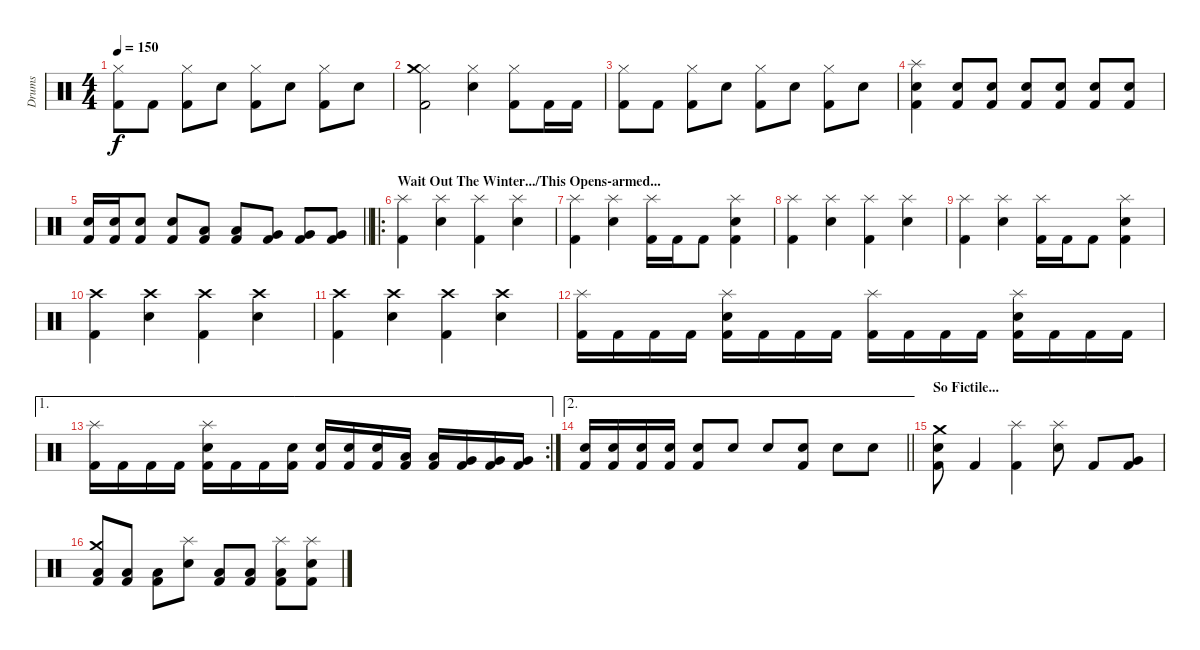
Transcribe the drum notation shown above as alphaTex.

\track ("Drums" "Drums") {instrument percussion}
\staff {score}
\articulation defaults
\ts (4 4)
\tempo 150
\clef neutral
\ks c
("Kick (hit) 2" "Hi-Hat (closed)").8{dy f} "Kick (hit) 2".8 ("Kick (hit) 2" "Hi-Hat (closed)").8 "Electric Snare (hit)".8 ("Kick (hit) 2" "Hi-Hat (closed)").8 "Electric Snare (hit)".8 ("Kick (hit) 2" "Hi-Hat (closed)").8 "Electric Snare (hit)".8 |
("Kick (hit) 2" "Hi-Hat (closed)" "Crash medium (hit)").2 ("Electric Snare (hit)" "Hi-Hat (closed)").4 ("Kick (hit) 2" "Hi-Hat (closed)").8 "Kick (hit) 2".16 "Kick (hit) 2".16 |
("Kick (hit) 2" "Hi-Hat (closed)").8 "Kick (hit) 2".8 ("Kick (hit) 2" "Hi-Hat (closed)").8 "Electric Snare (hit)".8 ("Kick (hit) 2" "Hi-Hat (closed)").8 "Electric Snare (hit)".8 ("Kick (hit) 2" "Hi-Hat (closed)").8 "Electric Snare (hit)".8 |
("Kick (hit) 2" "Electric Snare (hit)" "Splash (hit)").4 ("Kick (hit) 2" "Electric Snare (hit)").8 ("Kick (hit) 2" "Electric Snare (hit)").8 ("Kick (hit) 2" "Electric Snare (hit)").8 ("Kick (hit) 2" "Electric Snare (hit)").8 ("Kick (hit) 2" "Electric Snare (hit)").8 ("Kick (hit) 2" "Electric Snare (hit)").8 |
\barLineRight lightlight
("Kick (hit) 2" "Electric Snare (hit)").16 ("Kick (hit) 2" "Electric Snare (hit)").16 ("Kick (hit) 2" "Electric Snare (hit)").8 ("Kick (hit) 2" "Electric Snare (hit)").8 ("Kick (hit) 2" "Low Floor Tom (hit)").8 ("Kick (hit) 2" "Low Floor Tom (hit)").8 ("Kick (hit) 2" "Very Low Tom (hit)").8 ("Kick (hit) 2" "Very Low Tom (hit)").8 ("Kick (hit) 2" "Very Low Tom (hit)").8 |
\ro
\section ("" "Wait Out The Winter.../This Opens-armed...")
("Kick (hit) 2" "Splash (hit)").4 ("Electric Snare (hit)" "Splash (hit)").4 ("Kick (hit) 2" "Splash (hit)").4 ("Electric Snare (hit)" "Splash (hit)").4 |
("Kick (hit) 2" "Splash (hit)").4 ("Electric Snare (hit)" "Splash (hit)").4 ("Kick (hit) 2" "Splash (hit)").16 "Kick (hit) 2".16 "Kick (hit) 2".8 ("Kick (hit) 2" "Electric Snare (hit)" "Splash (hit)").4 |
("Kick (hit) 2" "Splash (hit)").4 ("Electric Snare (hit)" "Splash (hit)").4 ("Kick (hit) 2" "Splash (hit)").4 ("Electric Snare (hit)" "Splash (hit)").4 |
("Kick (hit) 2" "Splash (hit)").4 ("Electric Snare (hit)" "Splash (hit)").4 ("Kick (hit) 2" "Splash (hit)").16 "Kick (hit) 2".16 "Kick (hit) 2".8 ("Kick (hit) 2" "Electric Snare (hit)" "Splash (hit)").4 |
("Kick (hit) 2" "Crash high (hit)").4 ("Electric Snare (hit)" "Crash high (hit)").4 ("Kick (hit) 2" "Crash high (hit)").4 ("Electric Snare (hit)" "Crash high (hit)").4 |
("Kick (hit) 2" "Crash high (hit)").4 ("Electric Snare (hit)" "Crash high (hit)").4 ("Kick (hit) 2" "Crash high (hit)").4 ("Electric Snare (hit)" "Crash high (hit)").4 |
("Kick (hit) 2" "Splash (hit)").16 "Kick (hit) 2".16 "Kick (hit) 2".16 "Kick (hit) 2".16 ("Kick (hit) 2" "Electric Snare (hit)" "Splash (hit)").16 "Kick (hit) 2".16 "Kick (hit) 2".16 "Kick (hit) 2".16 ("Kick (hit) 2" "Splash (hit)").16 "Kick (hit) 2".16 "Kick (hit) 2".16 "Kick (hit) 2".16 ("Kick (hit) 2" "Electric Snare (hit)" "Splash (hit)").16 "Kick (hit) 2".16 "Kick (hit) 2".16 "Kick (hit) 2".16 |
\ae 1
\rc 2
("Kick (hit) 2" "Splash (hit)").16 "Kick (hit) 2".16 "Kick (hit) 2".16 "Kick (hit) 2".16 ("Kick (hit) 2" "Electric Snare (hit)" "Splash (hit)").16 "Kick (hit) 2".16 "Kick (hit) 2".16 ("Kick (hit) 2" "Electric Snare (hit)").16 ("Kick (hit) 2" "Electric Snare (hit)").16 ("Kick (hit) 2" "Electric Snare (hit)").16 ("Kick (hit) 2" "Electric Snare (hit)").16 ("Kick (hit) 2" "Low Floor Tom (hit)").16 ("Kick (hit) 2" "Low Floor Tom (hit)").16 ("Kick (hit) 2" "Very Low Tom (hit)").16 ("Kick (hit) 2" "Very Low Tom (hit)").16 ("Kick (hit) 2" "Very Low Tom (hit)").16 |
\ae 2
\barLineRight lightlight
("Kick (hit) 2" "Electric Snare (hit)").16 ("Kick (hit) 2" "Electric Snare (hit)").16 ("Kick (hit) 2" "Electric Snare (hit)").16 ("Kick (hit) 2" "Electric Snare (hit)").16 ("Kick (hit) 2" "Electric Snare (hit)").8 "Electric Snare (hit)".8 "Electric Snare (hit)".8 ("Kick (hit) 2" "Electric Snare (hit)").8 "Electric Snare (hit)".8 "Electric Snare (hit)".8 |
\section ("" "So Fictile...")
("Kick (hit) 2" "Electric Snare (hit)" "Crash medium (hit)").8 "Kick (hit) 2".4 ("Kick (hit) 2" "Splash (hit)").4 ("Electric Snare (hit)" "Splash (hit)").8 "Kick (hit) 2".8 ("Kick (hit) 2" "Very Low Tom (hit)").8 |
("Kick (hit) 2" "Low Floor Tom (hit)" "Crash medium (hit)").8 ("Kick (hit) 2" "Low Floor Tom (hit)").8 ("Kick (hit) 2" "Low Floor Tom (hit)").8 ("Electric Snare (hit)" "Splash (hit)").8 ("Kick (hit) 2" "Low Floor Tom (hit)").8 ("Kick (hit) 2" "Low Floor Tom (hit)").8 ("Kick (hit) 2" "Low Floor Tom (hit)" "Splash (hit)").8 ("Kick (hit) 2" "Electric Snare (hit)" "Splash (hit)").8
